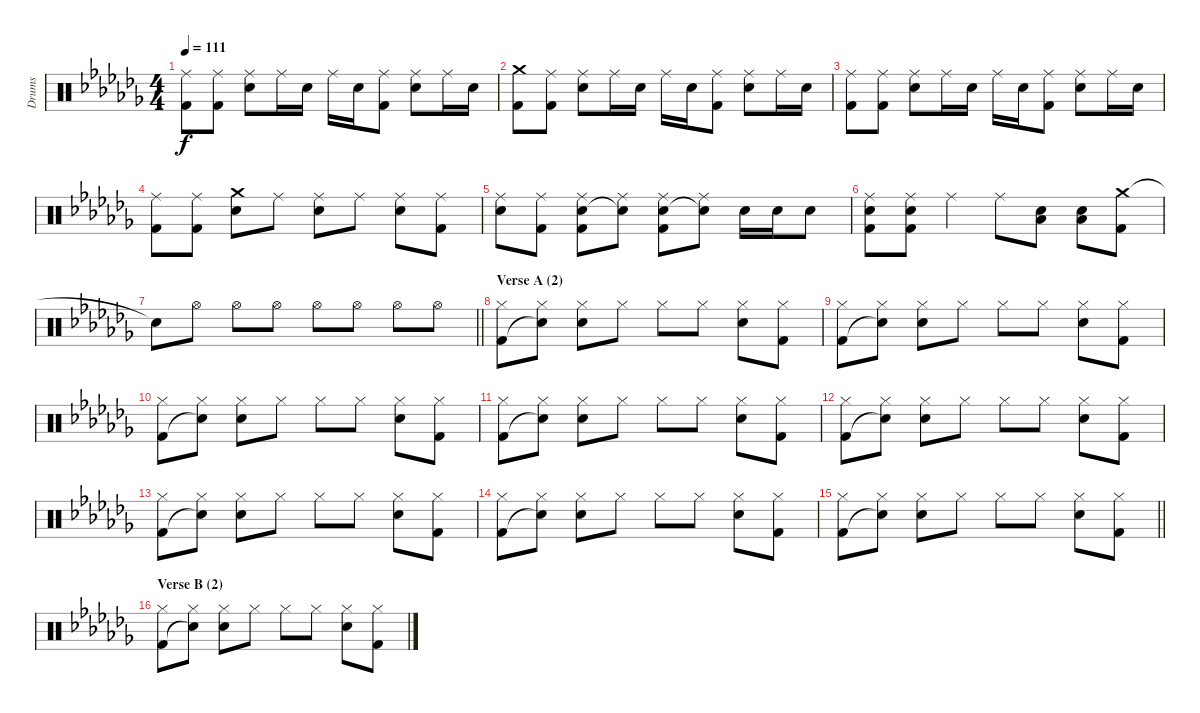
\track ("Drums" "Drums") {instrument percussion}
\staff {score}
\articulation defaults
\ts (4 4)
\tempo 111
\clef neutral
\ks abminor
("Ride (middle)" "Kick (hit) 2").8{dy f} ("Ride (middle)" "Kick (hit) 2").8 ("Ride (middle)" "Electric Snare (hit)").8 "Ride (middle)".16 "Electric Snare (hit)".16 "Ride (middle)".16 "Electric Snare (hit)".16 ("Ride (middle)" "Kick (hit) 2").8 ("Ride (middle)" "Electric Snare (hit)").8 "Ride (middle)".16 "Electric Snare (hit)".16 |
("Crash medium (hit)" "Kick (hit) 2").8 ("Ride (middle)" "Kick (hit) 2").8 ("Ride (middle)" "Electric Snare (hit)").8 "Ride (middle)".16 "Electric Snare (hit)".16 "Ride (middle)".16 "Electric Snare (hit)".16 ("Ride (middle)" "Kick (hit) 2").8 ("Ride (middle)" "Electric Snare (hit)").8 "Ride (middle)".16 "Electric Snare (hit)".16 |
("Ride (middle)" "Kick (hit) 2").8 ("Ride (middle)" "Kick (hit) 2").8 ("Ride (middle)" "Electric Snare (hit)").8 "Ride (middle)".16 "Electric Snare (hit)".16 "Ride (middle)".16 "Electric Snare (hit)".16 ("Ride (middle)" "Kick (hit) 2").8 ("Ride (middle)" "Electric Snare (hit)").8 "Ride (middle)".16 "Electric Snare (hit)".16 |
("Ride (middle)" "Kick (hit) 2").8 ("Ride (middle)" "Kick (hit) 2").8 ("Crash medium (hit)" "Electric Snare (hit)").8 "Ride (middle)".8 ("Ride (middle)" "Electric Snare (hit)").8 "Ride (middle)".8 ("Ride (middle)" "Electric Snare (hit)").8 ("Ride (middle)" "Kick (hit) 2").8 |
("Ride (middle)" "Electric Snare (hit)").8 ("Ride (middle)" "Kick (hit) 2").8 ("Ride (middle)" "Electric Snare (hit)" "Kick (hit) 2").8 ("Ride (middle)" "Snare (hit)"{t}).8 ("Ride (middle)" "Electric Snare (hit)" "Kick (hit) 2").8 ("Ride (middle)" "Snare (hit)"{t}).8 "Electric Snare (hit)".16 "Electric Snare (hit)".16 "Electric Snare (hit)".8 |
("Ride (middle)" "Electric Snare (hit)" "Kick (hit) 2").8 ("Ride (middle)" "Electric Snare (hit)" "Kick (hit) 2").8 "Ride (middle)".4 "Ride (middle)".8 ("Electric Snare (hit)" "Low Floor Tom (hit)").8 ("Electric Snare (hit)" "Low Floor Tom (hit)").8 ("Crash medium (hit)" "Kick (hit) 2").8 |
\barLineRight lightlight "Snare (hit)"{t}.8 "Hi-Hat (open)".8 "Hi-Hat (open)".8 "Hi-Hat (open)".8 "Hi-Hat (open)".8 "Hi-Hat (open)".8 "Hi-Hat (open)".8 "Hi-Hat (open)".8
|
\section ("" "Verse A (2)")
("Hi-Hat (closed)" "Kick (hit) 2").8 ("Hi-Hat (closed)" "Snare (hit)"{t}).8 ("Hi-Hat (closed)" "Electric Snare (hit)").8 "Hi-Hat (closed)".8 "Hi-Hat (closed)".8 "Hi-Hat (closed)".8 ("Hi-Hat (closed)" "Electric Snare (hit)").8 ("Hi-Hat (closed)" "Kick (hit) 2").8 |
("Hi-Hat (closed)" "Kick (hit) 2").8 ("Hi-Hat (closed)" "Snare (hit)"{t}).8 ("Hi-Hat (closed)" "Electric Snare (hit)").8 "Hi-Hat (closed)".8 "Hi-Hat (closed)".8 "Hi-Hat (closed)".8 ("Hi-Hat (closed)" "Electric Snare (hit)").8 ("Hi-Hat (closed)" "Kick (hit) 2").8 |
("Hi-Hat (closed)" "Kick (hit) 2").8 ("Hi-Hat (closed)" "Snare (hit)"{t}).8 ("Hi-Hat (closed)" "Electric Snare (hit)").8 "Hi-Hat (closed)".8 "Hi-Hat (closed)".8 "Hi-Hat (closed)".8 ("Hi-Hat (closed)" "Electric Snare (hit)").8 ("Hi-Hat (closed)" "Kick (hit) 2").8 |
("Hi-Hat (closed)" "Kick (hit) 2").8 ("Hi-Hat (closed)" "Snare (hit)"{t}).8 ("Hi-Hat (closed)" "Electric Snare (hit)").8 "Hi-Hat (closed)".8 "Hi-Hat (closed)".8 "Hi-Hat (closed)".8 ("Hi-Hat (closed)" "Electric Snare (hit)").8 ("Hi-Hat (closed)" "Kick (hit) 2").8 |
("Hi-Hat (closed)" "Kick (hit) 2").8 ("Hi-Hat (closed)" "Snare (hit)"{t}).8 ("Hi-Hat (closed)" "Electric Snare (hit)").8 "Hi-Hat (closed)".8 "Hi-Hat (closed)".8 "Hi-Hat (closed)".8 ("Hi-Hat (closed)" "Electric Snare (hit)").8 ("Hi-Hat (closed)" "Kick (hit) 2").8 |
("Hi-Hat (closed)" "Kick (hit) 2").8 ("Hi-Hat (closed)" "Snare (hit)"{t}).8 ("Hi-Hat (closed)" "Electric Snare (hit)").8 "Hi-Hat (closed)".8 "Hi-Hat (closed)".8 "Hi-Hat (closed)".8 ("Hi-Hat (closed)" "Electric Snare (hit)").8 ("Hi-Hat (closed)" "Kick (hit) 2").8 |
("Hi-Hat (closed)" "Kick (hit) 2").8 ("Hi-Hat (closed)" "Snare (hit)"{t}).8 ("Hi-Hat (closed)" "Electric Snare (hit)").8 "Hi-Hat (closed)".8 "Hi-Hat (closed)".8 "Hi-Hat (closed)".8 ("Hi-Hat (closed)" "Electric Snare (hit)").8 ("Hi-Hat (closed)" "Kick (hit) 2").8 |
\barLineRight lightlight
("Hi-Hat (closed)" "Kick (hit) 2").8 ("Hi-Hat (closed)" "Snare (hit)"{t}).8 ("Hi-Hat (closed)" "Electric Snare (hit)").8 "Hi-Hat (closed)".8 "Hi-Hat (closed)".8 "Hi-Hat (closed)".8 ("Hi-Hat (closed)" "Electric Snare (hit)").8 ("Hi-Hat (closed)" "Kick (hit) 2").8 |
\section ("" "Verse B (2)")
("Hi-Hat (closed)" "Kick (hit) 2").8 ("Hi-Hat (closed)" "Snare (hit)"{t}).8 ("Hi-Hat (closed)" "Electric Snare (hit)").8 "Hi-Hat (closed)".8 "Hi-Hat (closed)".8 "Hi-Hat (closed)".8 ("Hi-Hat (closed)" "Electric Snare (hit)").8 ("Hi-Hat (closed)" "Kick (hit) 2").8
